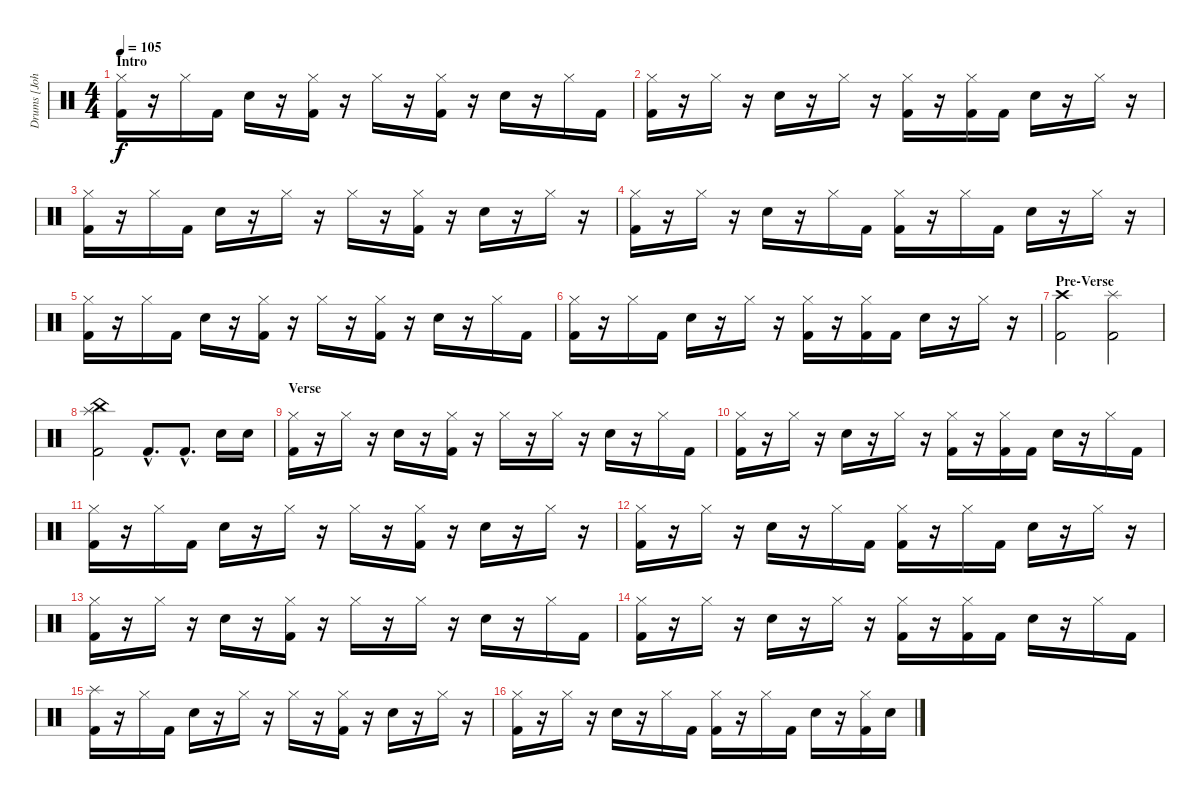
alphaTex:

\track ("Drums [John Otto]" "Drums [Joh") {instrument percussion}
\staff {score}
\articulation defaults
\ts (4 4)
\section ("" "Intro")
\tempo 105
\clef neutral
\ks c
("Hi-Hat (closed)" "Kick (hit) 2").16{dy f} r.16 "Hi-Hat (closed)".16 "Kick (hit) 2".16 "Electric Snare (hit)".16 r.16 ("Hi-Hat (closed)" "Kick (hit) 2").16 r.16 "Hi-Hat (closed)".16 r.16 ("Hi-Hat (closed)" "Kick (hit) 2").16 r.16 "Electric Snare (hit)".16 r.16 "Hi-Hat (closed)".16 "Kick (hit) 2".16 |
("Hi-Hat (closed)" "Kick (hit) 2").16 r.16 "Hi-Hat (closed)".16 r.16 "Electric Snare (hit)".16 r.16 "Hi-Hat (closed)".16 r.16 ("Hi-Hat (closed)" "Kick (hit) 2").16 r.16 ("Hi-Hat (closed)" "Kick (hit) 2").16 "Kick (hit) 2".16 "Electric Snare (hit)".16 r.16 "Hi-Hat (closed)".16 r.16 |
("Hi-Hat (closed)" "Kick (hit) 2").16 r.16 "Hi-Hat (closed)".16 "Kick (hit) 2".16 "Electric Snare (hit)".16 r.16 "Hi-Hat (closed)".16 r.16 "Hi-Hat (closed)".16 r.16 ("Hi-Hat (closed)" "Kick (hit) 2").16 r.16 "Electric Snare (hit)".16 r.16 "Hi-Hat (closed)".16 r.16 |
("Hi-Hat (closed)" "Kick (hit) 2").16 r.16 "Hi-Hat (closed)".16 r.16 "Electric Snare (hit)".16 r.16 "Hi-Hat (closed)".16 "Kick (hit) 2".16 ("Hi-Hat (closed)" "Kick (hit) 2").16 r.16 "Hi-Hat (closed)".16 "Kick (hit) 2".16 "Electric Snare (hit)".16 r.16 "Hi-Hat (closed)".16 r.16 |
("Hi-Hat (closed)" "Kick (hit) 2").16 r.16 "Hi-Hat (closed)".16 "Kick (hit) 2".16 "Electric Snare (hit)".16 r.16 ("Hi-Hat (closed)" "Kick (hit) 2").16 r.16 "Hi-Hat (closed)".16 r.16 ("Hi-Hat (closed)" "Kick (hit) 2").16 r.16 "Electric Snare (hit)".16 r.16 "Hi-Hat (closed)".16 "Kick (hit) 2".16 |
("Hi-Hat (closed)" "Kick (hit) 2").16 r.16 "Hi-Hat (closed)".16 "Kick (hit) 2".16 "Electric Snare (hit)".16 r.16 "Hi-Hat (closed)".16 r.16 ("Hi-Hat (closed)" "Kick (hit) 2").16 r.16 ("Hi-Hat (closed)" "Kick (hit) 2").16 "Kick (hit) 2".16 "Electric Snare (hit)".16 r.16 "Hi-Hat (closed)".16 r.16 |
\section ("" "Pre-Verse")
("Crash high (hit)" "Kick (hit) 2").2 ("Splash (hit)" "Kick (hit) 2").2 |
("China (hit)" "Splash (hit)" "Kick (hit) 2").2 "Kick (hit) 2"{hac}.8{d} "Kick (hit) 2"{hac}.8{d} "Electric Snare (hit)".16 "Electric Snare (hit)".16 |
\section ("" "Verse")
("Hi-Hat (closed)" "Kick (hit) 2").16 r.16 "Hi-Hat (closed)".16 r.16 "Electric Snare (hit)".16 r.16 ("Hi-Hat (closed)" "Kick (hit) 2").16 r.16 "Hi-Hat (closed)".16 r.16 "Hi-Hat (closed)".16 r.16 "Electric Snare (hit)".16 r.16 "Hi-Hat (closed)".16 "Kick (hit) 2".16 |
("Hi-Hat (closed)" "Kick (hit) 2").16 r.16 "Hi-Hat (closed)".16 r.16 "Electric Snare (hit)".16 r.16 "Hi-Hat (closed)".16 r.16 ("Hi-Hat (closed)" "Kick (hit) 2").16 r.16 ("Hi-Hat (closed)" "Kick (hit) 2").16 "Kick (hit) 2".16 "Electric Snare (hit)".16 r.16 "Hi-Hat (closed)".16 "Kick (hit) 2".16 |
("Hi-Hat (closed)" "Kick (hit) 2").16 r.16 "Hi-Hat (closed)".16 "Kick (hit) 2".16 "Electric Snare (hit)".16 r.16 "Hi-Hat (closed)".16 r.16 "Hi-Hat (closed)".16 r.16 ("Hi-Hat (closed)" "Kick (hit) 2").16 r.16 "Electric Snare (hit)".16 r.16 "Hi-Hat (closed)".16 r.16 |
("Hi-Hat (closed)" "Kick (hit) 2").16 r.16 "Hi-Hat (closed)".16 r.16 "Electric Snare (hit)".16 r.16 "Hi-Hat (closed)".16 "Kick (hit) 2".16 ("Hi-Hat (closed)" "Kick (hit) 2").16 r.16 "Hi-Hat (closed)".16 "Kick (hit) 2".16 "Electric Snare (hit)".16 r.16 "Hi-Hat (closed)".16 r.16 |
("Hi-Hat (closed)" "Kick (hit) 2").16 r.16 "Hi-Hat (closed)".16 r.16 "Electric Snare (hit)".16 r.16 ("Hi-Hat (closed)" "Kick (hit) 2").16 r.16 "Hi-Hat (closed)".16 r.16 "Hi-Hat (closed)".16 r.16 "Electric Snare (hit)".16 r.16 "Hi-Hat (closed)".16 "Kick (hit) 2".16 |
("Hi-Hat (closed)" "Kick (hit) 2").16 r.16 "Hi-Hat (closed)".16 r.16 "Electric Snare (hit)".16 r.16 "Hi-Hat (closed)".16 r.16 ("Hi-Hat (closed)" "Kick (hit) 2").16 r.16 ("Hi-Hat (closed)" "Kick (hit) 2").16 "Kick (hit) 2".16 "Electric Snare (hit)".16 r.16 "Hi-Hat (closed)".16 "Kick (hit) 2".16 |
("Splash (hit)" "Kick (hit) 2").16 r.16 "Hi-Hat (closed)".16 "Kick (hit) 2".16 "Electric Snare (hit)".16 r.16 "Hi-Hat (closed)".16 r.16 "Hi-Hat (closed)".16 r.16 ("Hi-Hat (closed)" "Kick (hit) 2").16 r.16 "Electric Snare (hit)".16 r.16 "Hi-Hat (closed)".16 r.16 |
("Hi-Hat (closed)" "Kick (hit) 2").16 r.16 "Hi-Hat (closed)".16 r.16 "Electric Snare (hit)".16 r.16 "Hi-Hat (closed)".16 "Kick (hit) 2".16 ("Hi-Hat (closed)" "Kick (hit) 2").16 r.16 "Hi-Hat (closed)".16 "Kick (hit) 2".16 "Electric Snare (hit)".16 r.16 ("Hi-Hat (closed)" "Kick (hit) 2").16 "Electric Snare (hit)".16
